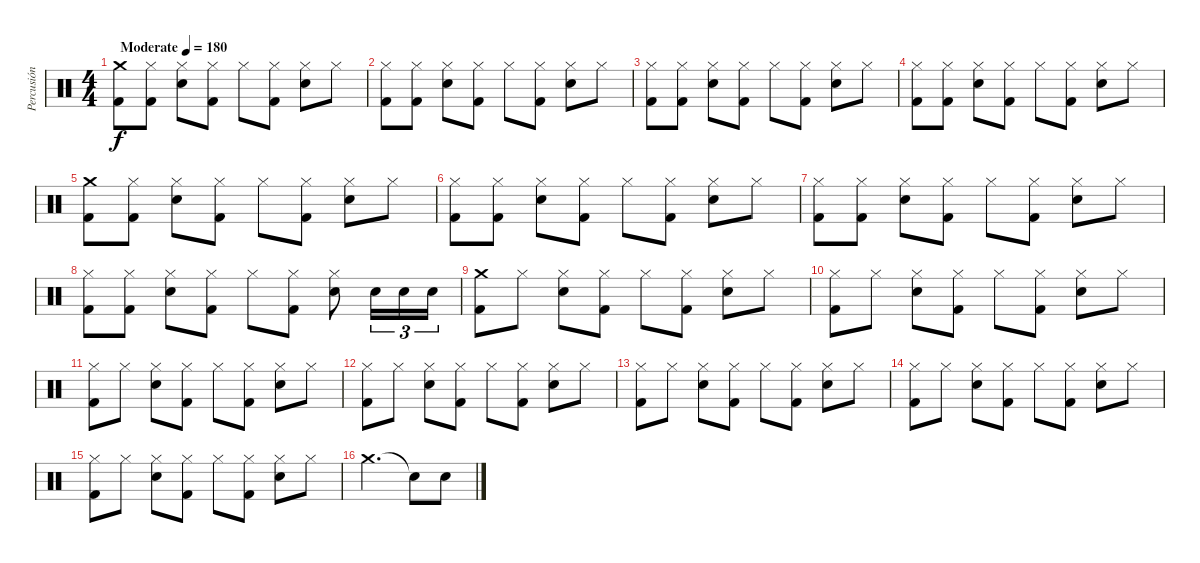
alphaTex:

\track ("Percusión" "Percusión") {instrument percussion}
\staff {score}
\articulation defaults
\ts (4 4)
\tempo (180 "Moderate")
\clef neutral
\ks c
("Crash medium (hit)" "Kick (hit) 2").8{dy f} ("Hi-Hat (closed)" "Kick (hit) 2").8 ("Hi-Hat (closed)" "Electric Snare (hit)").8 ("Hi-Hat (closed)" "Kick (hit) 2").8 "Hi-Hat (closed)".8 ("Hi-Hat (closed)" "Kick (hit) 2").8 ("Hi-Hat (closed)" "Electric Snare (hit)").8 "Hi-Hat (closed)".8 |
("Hi-Hat (closed)" "Kick (hit) 2").8 ("Hi-Hat (closed)" "Kick (hit) 2").8 ("Hi-Hat (closed)" "Electric Snare (hit)").8 ("Hi-Hat (closed)" "Kick (hit) 2").8 "Hi-Hat (closed)".8 ("Hi-Hat (closed)" "Kick (hit) 2").8 ("Hi-Hat (closed)" "Electric Snare (hit)").8 "Hi-Hat (closed)".8 |
("Hi-Hat (closed)" "Kick (hit) 2").8 ("Hi-Hat (closed)" "Kick (hit) 2").8 ("Hi-Hat (closed)" "Electric Snare (hit)").8 ("Hi-Hat (closed)" "Kick (hit) 2").8 "Hi-Hat (closed)".8 ("Hi-Hat (closed)" "Kick (hit) 2").8 ("Hi-Hat (closed)" "Electric Snare (hit)").8 "Hi-Hat (closed)".8 |
("Hi-Hat (closed)" "Kick (hit) 2").8 ("Hi-Hat (closed)" "Kick (hit) 2").8 ("Hi-Hat (closed)" "Electric Snare (hit)").8 ("Hi-Hat (closed)" "Kick (hit) 2").8 "Hi-Hat (closed)".8 ("Hi-Hat (closed)" "Kick (hit) 2").8 ("Hi-Hat (closed)" "Electric Snare (hit)").8 "Hi-Hat (closed)".8 |
("Crash medium (hit)" "Kick (hit) 2").8 ("Hi-Hat (closed)" "Kick (hit) 2").8 ("Hi-Hat (closed)" "Electric Snare (hit)").8 ("Hi-Hat (closed)" "Kick (hit) 2").8 "Hi-Hat (closed)".8 ("Hi-Hat (closed)" "Kick (hit) 2").8 ("Hi-Hat (closed)" "Electric Snare (hit)").8 "Hi-Hat (closed)".8 |
("Hi-Hat (closed)" "Kick (hit) 2").8 ("Hi-Hat (closed)" "Kick (hit) 2").8 ("Hi-Hat (closed)" "Electric Snare (hit)").8 ("Hi-Hat (closed)" "Kick (hit) 2").8 "Hi-Hat (closed)".8 ("Hi-Hat (closed)" "Kick (hit) 2").8 ("Hi-Hat (closed)" "Electric Snare (hit)").8 "Hi-Hat (closed)".8 |
("Hi-Hat (closed)" "Kick (hit) 2").8 ("Hi-Hat (closed)" "Kick (hit) 2").8 ("Hi-Hat (closed)" "Electric Snare (hit)").8 ("Hi-Hat (closed)" "Kick (hit) 2").8 "Hi-Hat (closed)".8 ("Hi-Hat (closed)" "Kick (hit) 2").8 ("Hi-Hat (closed)" "Electric Snare (hit)").8 "Hi-Hat (closed)".8 |
("Hi-Hat (closed)" "Kick (hit) 2").8 ("Hi-Hat (closed)" "Kick (hit) 2").8 ("Hi-Hat (closed)" "Electric Snare (hit)").8 ("Hi-Hat (closed)" "Kick (hit) 2").8 "Hi-Hat (closed)".8 ("Hi-Hat (closed)" "Kick (hit) 2").8 ("Hi-Hat (closed)" "Electric Snare (hit)").8 "Electric Snare (hit)".16{tu (3 2)} "Electric Snare (hit)".16{tu (3 2)} "Electric Snare (hit)".16{tu (3 2)} |
("Crash medium (hit)" "Kick (hit) 2").8 "Hi-Hat (closed)".8 ("Hi-Hat (closed)" "Electric Snare (hit)").8 ("Hi-Hat (closed)" "Kick (hit) 2").8 "Hi-Hat (closed)".8 ("Hi-Hat (closed)" "Kick (hit) 2").8 ("Hi-Hat (closed)" "Electric Snare (hit)").8 "Hi-Hat (closed)".8 |
("Hi-Hat (closed)" "Kick (hit) 2").8 "Hi-Hat (closed)".8 ("Hi-Hat (closed)" "Electric Snare (hit)").8 ("Hi-Hat (closed)" "Kick (hit) 2").8 "Hi-Hat (closed)".8 ("Hi-Hat (closed)" "Kick (hit) 2").8 ("Hi-Hat (closed)" "Electric Snare (hit)").8 "Hi-Hat (closed)".8 |
("Hi-Hat (closed)" "Kick (hit) 2").8 "Hi-Hat (closed)".8 ("Hi-Hat (closed)" "Electric Snare (hit)").8 ("Hi-Hat (closed)" "Kick (hit) 2").8 "Hi-Hat (closed)".8 ("Hi-Hat (closed)" "Kick (hit) 2").8 ("Hi-Hat (closed)" "Electric Snare (hit)").8 "Hi-Hat (closed)".8 |
("Hi-Hat (closed)" "Kick (hit) 2").8 "Hi-Hat (closed)".8 ("Hi-Hat (closed)" "Electric Snare (hit)").8 ("Hi-Hat (closed)" "Kick (hit) 2").8 "Hi-Hat (closed)".8 ("Hi-Hat (closed)" "Kick (hit) 2").8 ("Hi-Hat (closed)" "Electric Snare (hit)").8 "Hi-Hat (closed)".8 |
("Hi-Hat (closed)" "Kick (hit) 2").8 "Hi-Hat (closed)".8 ("Hi-Hat (closed)" "Electric Snare (hit)").8 ("Hi-Hat (closed)" "Kick (hit) 2").8 "Hi-Hat (closed)".8 ("Hi-Hat (closed)" "Kick (hit) 2").8 ("Hi-Hat (closed)" "Electric Snare (hit)").8 "Hi-Hat (closed)".8 |
("Hi-Hat (closed)" "Kick (hit) 2").8 "Hi-Hat (closed)".8 ("Hi-Hat (closed)" "Electric Snare (hit)").8 ("Hi-Hat (closed)" "Kick (hit) 2").8 "Hi-Hat (closed)".8 ("Hi-Hat (closed)" "Kick (hit) 2").8 ("Hi-Hat (closed)" "Electric Snare (hit)").8 "Hi-Hat (closed)".8 |
("Hi-Hat (closed)" "Kick (hit) 2").8 "Hi-Hat (closed)".8 ("Hi-Hat (closed)" "Electric Snare (hit)").8 ("Hi-Hat (closed)" "Kick (hit) 2").8 "Hi-Hat (closed)".8 ("Hi-Hat (closed)" "Kick (hit) 2").8 ("Hi-Hat (closed)" "Electric Snare (hit)").8 "Hi-Hat (closed)".8 |
"Crash medium (hit)".2{d} "Snare (hit)"{t}.8 "Electric Snare (hit)".8
